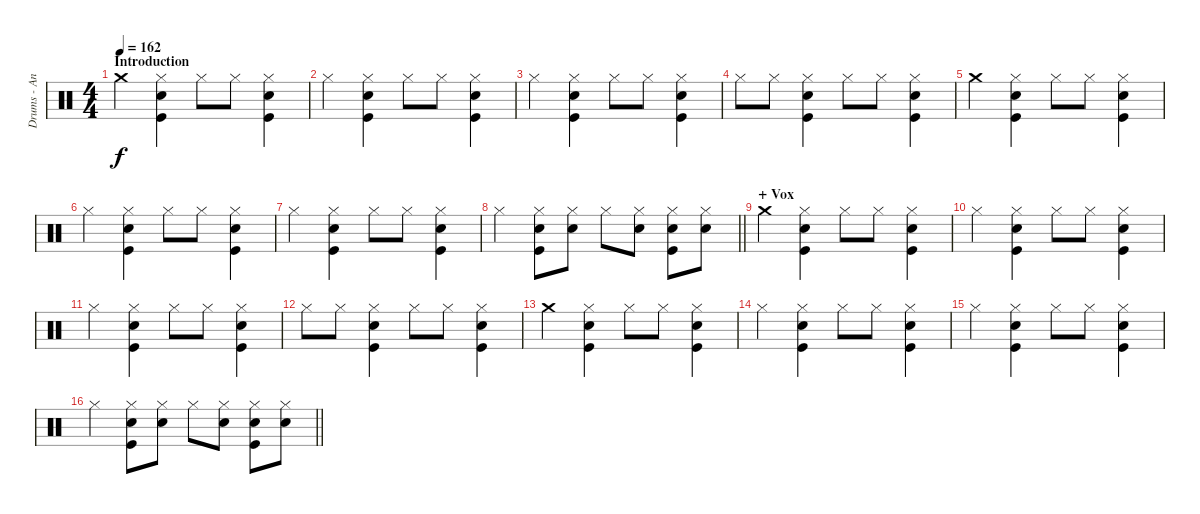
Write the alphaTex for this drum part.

\track ("Drums - Andriushkin" "Drums - An") {instrument percussion}
\staff {score}
\articulation defaults
\ts (4 4)
\section ("" "Introduction")
\tempo 162
\clef neutral
\ks c "Crash medium (hit)".4{dy f}
("Hi-Hat (closed)" "Electric Snare (hit)" "Kick (hit)").4 "Hi-Hat (closed)".8 "Hi-Hat (closed)".8 ("Hi-Hat (closed)" "Electric Snare (hit)" "Kick (hit)").4 |
"Hi-Hat (closed)".4 ("Hi-Hat (closed)" "Electric Snare (hit)" "Kick (hit)").4 "Hi-Hat (closed)".8 "Hi-Hat (closed)".8 ("Hi-Hat (closed)" "Electric Snare (hit)" "Kick (hit)").4 |
"Hi-Hat (closed)".4 ("Hi-Hat (closed)" "Electric Snare (hit)" "Kick (hit)").4 "Hi-Hat (closed)".8 "Hi-Hat (closed)".8 ("Hi-Hat (closed)" "Electric Snare (hit)" "Kick (hit)").4 |
"Hi-Hat (closed)".8 "Hi-Hat (closed)".8 ("Hi-Hat (closed)" "Electric Snare (hit)" "Kick (hit)").4 "Hi-Hat (closed)".8 "Hi-Hat (closed)".8 ("Hi-Hat (closed)" "Electric Snare (hit)" "Kick (hit)").4 |
"Crash medium (hit)".4 ("Hi-Hat (closed)" "Electric Snare (hit)" "Kick (hit)").4 "Hi-Hat (closed)".8 "Hi-Hat (closed)".8 ("Hi-Hat (closed)" "Electric Snare (hit)" "Kick (hit)").4 |
"Hi-Hat (closed)".4 ("Hi-Hat (closed)" "Electric Snare (hit)" "Kick (hit)").4 "Hi-Hat (closed)".8 "Hi-Hat (closed)".8 ("Hi-Hat (closed)" "Electric Snare (hit)" "Kick (hit)").4 |
"Hi-Hat (closed)".4 ("Hi-Hat (closed)" "Electric Snare (hit)" "Kick (hit)").4 "Hi-Hat (closed)".8 "Hi-Hat (closed)".8 ("Hi-Hat (closed)" "Electric Snare (hit)" "Kick (hit)").4 |
\barLineRight lightlight "Hi-Hat (closed)".4
("Hi-Hat (closed)" "Electric Snare (hit)" "Kick (hit)").8 ("Hi-Hat (closed)" "Electric Snare (hit)").8 "Hi-Hat (closed)".8 ("Hi-Hat (closed)" "Electric Snare (hit)").8 ("Hi-Hat (closed)" "Electric Snare (hit)" "Kick (hit)").8 ("Hi-Hat (closed)" "Electric Snare (hit)").8 |
\section ("" "+ Vox")
"Crash medium (hit)".4 ("Hi-Hat (closed)" "Electric Snare (hit)" "Kick (hit)").4 "Hi-Hat (closed)".8 "Hi-Hat (closed)".8 ("Hi-Hat (closed)" "Electric Snare (hit)" "Kick (hit)").4 |
"Hi-Hat (closed)".4 ("Hi-Hat (closed)" "Electric Snare (hit)" "Kick (hit)").4 "Hi-Hat (closed)".8 "Hi-Hat (closed)".8 ("Hi-Hat (closed)" "Electric Snare (hit)" "Kick (hit)").4 |
"Hi-Hat (closed)".4 ("Hi-Hat (closed)" "Electric Snare (hit)" "Kick (hit)").4 "Hi-Hat (closed)".8 "Hi-Hat (closed)".8 ("Hi-Hat (closed)" "Electric Snare (hit)" "Kick (hit)").4 |
"Hi-Hat (closed)".8 "Hi-Hat (closed)".8 ("Hi-Hat (closed)" "Electric Snare (hit)" "Kick (hit)").4 "Hi-Hat (closed)".8 "Hi-Hat (closed)".8 ("Hi-Hat (closed)" "Electric Snare (hit)" "Kick (hit)").4 |
"Crash medium (hit)".4 ("Hi-Hat (closed)" "Electric Snare (hit)" "Kick (hit)").4 "Hi-Hat (closed)".8 "Hi-Hat (closed)".8 ("Hi-Hat (closed)" "Electric Snare (hit)" "Kick (hit)").4 |
"Hi-Hat (closed)".4 ("Hi-Hat (closed)" "Electric Snare (hit)" "Kick (hit)").4 "Hi-Hat (closed)".8 "Hi-Hat (closed)".8 ("Hi-Hat (closed)" "Electric Snare (hit)" "Kick (hit)").4 |
"Hi-Hat (closed)".4 ("Hi-Hat (closed)" "Electric Snare (hit)" "Kick (hit)").4 "Hi-Hat (closed)".8 "Hi-Hat (closed)".8 ("Hi-Hat (closed)" "Electric Snare (hit)" "Kick (hit)").4 |
\barLineRight lightlight "Hi-Hat (closed)".4
("Hi-Hat (closed)" "Electric Snare (hit)" "Kick (hit)").8 ("Hi-Hat (closed)" "Electric Snare (hit)").8 "Hi-Hat (closed)".8 ("Hi-Hat (closed)" "Electric Snare (hit)").8 ("Hi-Hat (closed)" "Electric Snare (hit)" "Kick (hit)").8 ("Hi-Hat (closed)" "Electric Snare (hit)").8
